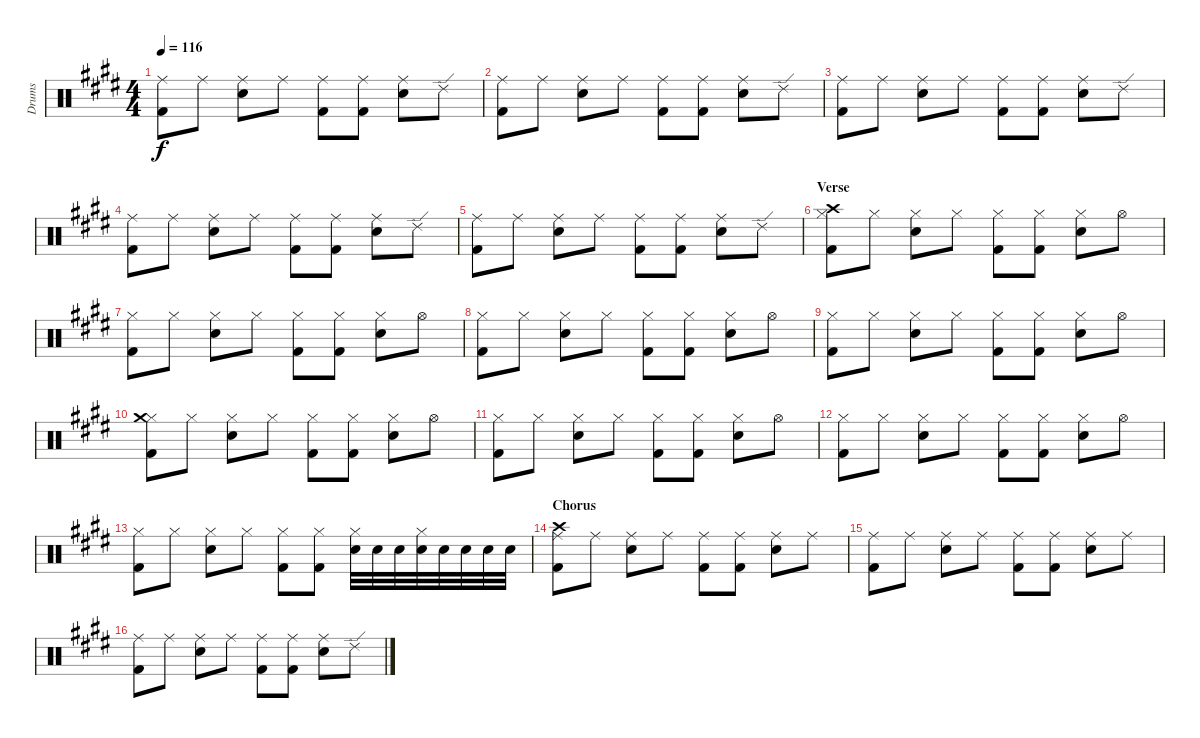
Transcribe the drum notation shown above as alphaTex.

\track ("Drums" "Drums") {instrument percussion}
\staff {score}
\articulation defaults
\ts (4 4)
\tempo 116
\clef neutral
\ks c#minor
("Ride (middle)" "Kick (hit) 2").8{dy f} "Ride (middle)".8 ("Ride (middle)" "Snare (hit) 2").8 "Ride (middle)".8 ("Ride (middle)" "Kick (hit) 2").8 ("Ride (middle)" "Kick (hit) 2").8 ("Ride (middle)" "Snare (hit) 2").8 "Ride (edge) 2".8 |
("Ride (middle)" "Kick (hit) 2").8 "Ride (middle)".8 ("Ride (middle)" "Snare (hit) 2").8 "Ride (middle)".8 ("Ride (middle)" "Kick (hit) 2").8 ("Ride (middle)" "Kick (hit) 2").8 ("Ride (middle)" "Snare (hit) 2").8 "Ride (edge) 2".8 |
("Ride (middle)" "Kick (hit) 2").8 "Ride (middle)".8 ("Ride (middle)" "Snare (hit) 2").8 "Ride (middle)".8 ("Ride (middle)" "Kick (hit) 2").8 ("Ride (middle)" "Kick (hit) 2").8 ("Ride (middle)" "Snare (hit) 2").8 "Ride (edge) 2".8 |
("Ride (middle)" "Kick (hit) 2").8 "Ride (middle)".8 ("Ride (middle)" "Snare (hit) 2").8 "Ride (middle)".8 ("Ride (middle)" "Kick (hit) 2").8 ("Ride (middle)" "Kick (hit) 2").8 ("Ride (middle)" "Snare (hit) 2").8 "Ride (edge) 2".8 |
("Ride (middle)" "Kick (hit) 2").8 "Ride (middle)".8 ("Ride (middle)" "Snare (hit) 2").8 "Ride (middle)".8 ("Ride (middle)" "Kick (hit) 2").8 ("Ride (middle)" "Kick (hit) 2").8 ("Ride (middle)" "Snare (hit) 2").8 "Ride (edge) 2".8 |
\section ("" "Verse")
("Hi-Hat (closed)" "Crash high (hit)" "Kick (hit) 2").8 "Hi-Hat (closed)".8 ("Hi-Hat (closed)" "Snare (hit) 2").8 "Hi-Hat (closed)".8 ("Hi-Hat (closed)" "Kick (hit) 2").8 ("Hi-Hat (closed)" "Kick (hit) 2").8 ("Hi-Hat (closed)" "Snare (hit) 2").8 "Hi-Hat (open)".8 |
("Hi-Hat (closed)" "Kick (hit) 2").8 "Hi-Hat (closed)".8 ("Hi-Hat (closed)" "Snare (hit) 2").8 "Hi-Hat (closed)".8 ("Hi-Hat (closed)" "Kick (hit) 2").8 ("Hi-Hat (closed)" "Kick (hit) 2").8 ("Hi-Hat (closed)" "Snare (hit) 2").8 "Hi-Hat (open)".8 |
("Hi-Hat (closed)" "Kick (hit) 2").8 "Hi-Hat (closed)".8 ("Hi-Hat (closed)" "Snare (hit) 2").8 "Hi-Hat (closed)".8 ("Hi-Hat (closed)" "Kick (hit) 2").8 ("Hi-Hat (closed)" "Kick (hit) 2").8 ("Hi-Hat (closed)" "Snare (hit) 2").8 "Hi-Hat (open)".8 |
("Hi-Hat (closed)" "Kick (hit) 2").8 "Hi-Hat (closed)".8 ("Hi-Hat (closed)" "Snare (hit) 2").8 "Hi-Hat (closed)".8 ("Hi-Hat (closed)" "Kick (hit) 2").8 ("Hi-Hat (closed)" "Kick (hit) 2").8 ("Hi-Hat (closed)" "Snare (hit) 2").8 "Hi-Hat (open)".8 |
("Hi-Hat (closed)" "Crash medium (hit)" "Kick (hit) 2").8 "Hi-Hat (closed)".8 ("Hi-Hat (closed)" "Snare (hit) 2").8 "Hi-Hat (closed)".8 ("Hi-Hat (closed)" "Kick (hit) 2").8 ("Hi-Hat (closed)" "Kick (hit) 2").8 ("Hi-Hat (closed)" "Snare (hit) 2").8 "Hi-Hat (open)".8 |
("Hi-Hat (closed)" "Kick (hit) 2").8 "Hi-Hat (closed)".8 ("Hi-Hat (closed)" "Snare (hit) 2").8 "Hi-Hat (closed)".8 ("Hi-Hat (closed)" "Kick (hit) 2").8 ("Hi-Hat (closed)" "Kick (hit) 2").8 ("Hi-Hat (closed)" "Snare (hit) 2").8 "Hi-Hat (open)".8 |
("Hi-Hat (closed)" "Kick (hit) 2").8 "Hi-Hat (closed)".8 ("Hi-Hat (closed)" "Snare (hit) 2").8 "Hi-Hat (closed)".8 ("Hi-Hat (closed)" "Kick (hit) 2").8 ("Hi-Hat (closed)" "Kick (hit) 2").8 ("Hi-Hat (closed)" "Snare (hit) 2").8 "Hi-Hat (open)".8 |
("Hi-Hat (closed)" "Kick (hit) 2").8 "Hi-Hat (closed)".8 ("Hi-Hat (closed)" "Snare (hit) 2").8 "Hi-Hat (closed)".8 ("Hi-Hat (closed)" "Kick (hit) 2").8 ("Hi-Hat (closed)" "Kick (hit) 2").8 ("Hi-Hat (closed)" "Snare (hit) 2").32 "Snare (hit) 2".32 "Snare (hit) 2".32 ("Hi-Hat (closed)" "Snare (hit) 2").32 "Snare (hit) 2".32 "Snare (hit) 2".32 "Snare (hit) 2".32 "Snare (hit) 2".32 |
\section ("" "Chorus")
("Ride (middle)" "Crash high (hit)" "Kick (hit) 2").8 "Ride (middle)".8 ("Ride (middle)" "Snare (hit) 2").8 "Ride (middle)".8 ("Ride (middle)" "Kick (hit) 2").8 ("Ride (middle)" "Kick (hit) 2").8 ("Ride (middle)" "Snare (hit) 2").8 "Ride (middle)".8 |
("Ride (middle)" "Kick (hit) 2").8 "Ride (middle)".8 ("Ride (middle)" "Snare (hit) 2").8 "Ride (middle)".8 ("Ride (middle)" "Kick (hit) 2").8 ("Ride (middle)" "Kick (hit) 2").8 ("Ride (middle)" "Snare (hit) 2").8 "Ride (middle)".8 |
("Ride (middle)" "Kick (hit) 2").8 "Ride (middle)".8 ("Ride (middle)" "Snare (hit) 2").8 "Ride (middle)".8 ("Ride (middle)" "Kick (hit) 2").8 ("Ride (middle)" "Kick (hit) 2").8 ("Ride (middle)" "Snare (hit) 2").8 "Ride (edge) 2".8
